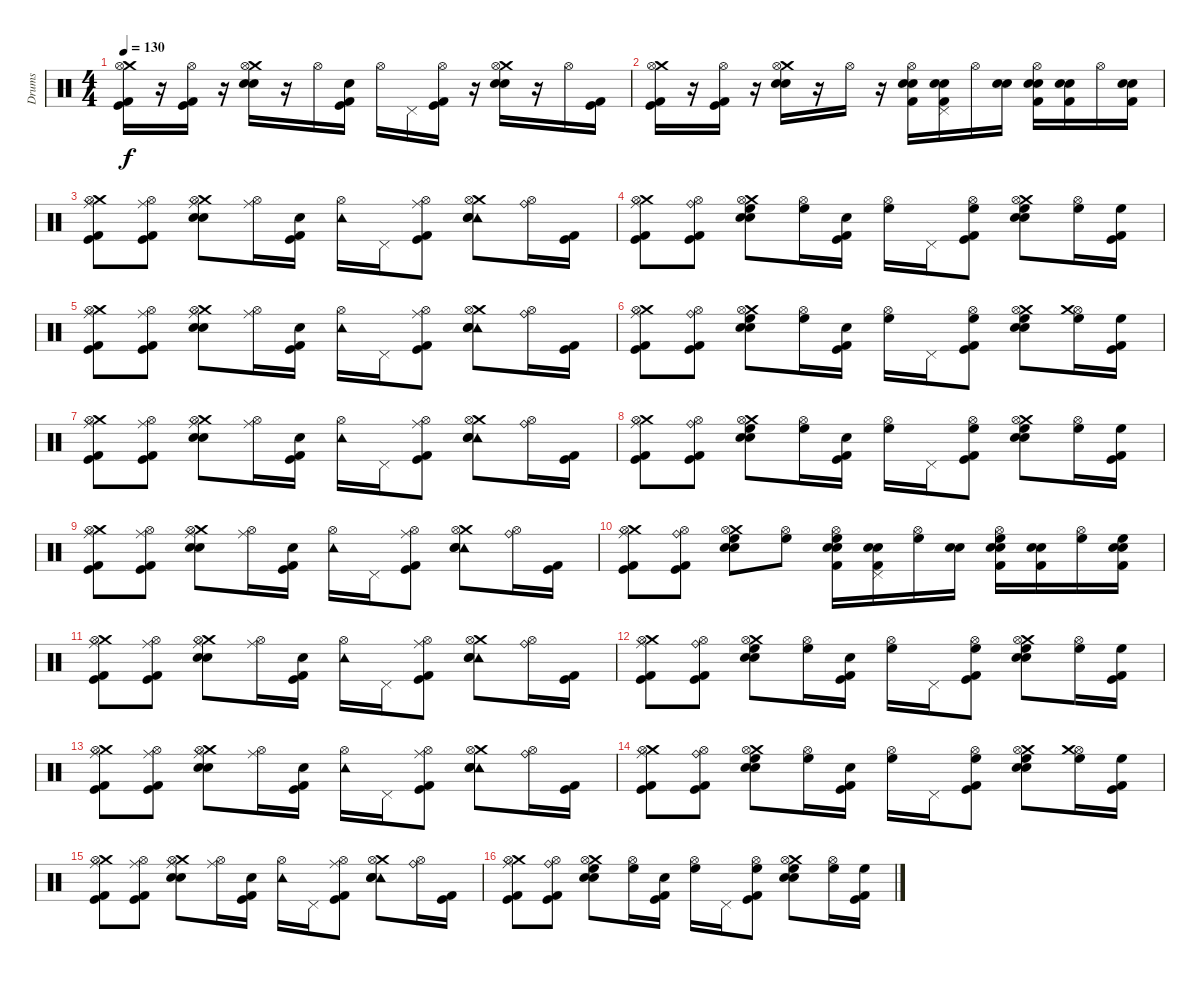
\track ("Drums" "Drums") {instrument percussion}
\staff {score}
\articulation defaults
\ts (4 4)
\tempo 130
\clef neutral
\ks c
("Kick (hit) 2" "Kick (hit)" "Crash medium (hit)" "Hi-Hat (open)").16{dy f} r.16 ("Kick (hit) 2" "Kick (hit)" "Hi-Hat (open)").16 r.16 ("Snare (hit) 2" "Electric Snare (hit)" "Crash medium (hit)" "Hi-Hat (open)").16 r.16 "Hi-Hat (open)".16 ("Kick (hit) 2" "Kick (hit)" "Electric Snare (hit)").16 "Hi-Hat (open)".16 "Pedal Hi-Hat (hit)".16 ("Kick (hit) 2" "Kick (hit)" "Hi-Hat (open)").16 r.16 ("Snare (hit) 2" "Electric Snare (hit)" "Crash medium (hit)" "Hi-Hat (open)").16 r.16 "Hi-Hat (open)".16 ("Kick (hit) 2" "Kick (hit)").16 |
("Kick (hit) 2" "Kick (hit)" "Crash medium (hit)" "Hi-Hat (open)").16 r.16 ("Kick (hit) 2" "Kick (hit)" "Hi-Hat (open)").16 r.16 ("Snare (hit) 2" "Electric Snare (hit)" "Crash medium (hit)" "Hi-Hat (open)").16 r.16 "Hi-Hat (open)".16 r.16 ("Hi-Hat (open)" "Electric Snare (hit)" "Snare (hit) 2" "Kick (hit) 2").16 ("Electric Snare (hit)" "Snare (hit) 2" "Kick (hit) 2" "Pedal Hi-Hat (hit)").16 "Hi-Hat (open)".16 ("Electric Snare (hit)" "Electric Snare (hit)").16 ("Hi-Hat (open)" "Snare (hit) 2" "Electric Snare (hit)" "Kick (hit) 2").16 ("Electric Snare (hit)" "Snare (hit) 2" "Kick (hit) 2").16 "Hi-Hat (open)".16 ("Electric Snare (hit)" "Snare (hit) 2" "Kick (hit) 2").16 |
("Ride (middle)" "Kick (hit) 2" "Kick (hit)" "Crash medium (hit)" "Hi-Hat (open)").8 ("Ride (middle)" "Kick (hit) 2" "Kick (hit)" "Hi-Hat (open)").8 ("Ride (middle)" "Snare (hit) 2" "Electric Snare (hit)" "Crash medium (hit)" "Hi-Hat (open)").8 ("Ride (middle)" "Hi-Hat (open)").16 ("Kick (hit) 2" "Kick (hit)" "Electric Snare (hit)").16 ("Tambourine (hit)" "Hi-Hat (open)").16 "Pedal Hi-Hat (hit)".16 ("Ride (middle)" "Kick (hit) 2" "Kick (hit)" "Hi-Hat (open)").8 ("Tambourine (hit)" "Snare (hit) 2" "Electric Snare (hit)" "Crash medium (hit)" "Hi-Hat (open)").8 ("Ride (bell)" "Hi-Hat (open)").16 ("Kick (hit) 2" "Kick (hit)").16 |
("Ride (middle)" "Kick (hit) 2" "Kick (hit)" "Crash medium (hit)" "Hi-Hat (open)").8 ("Ride (bell)" "Kick (hit) 2" "Kick (hit)" "Hi-Hat (open)").8 ("High Floor Tom (hit)" "Snare (hit) 2" "Electric Snare (hit)" "Crash medium (hit)" "Hi-Hat (open)").8 ("High Floor Tom (hit)" "Hi-Hat (open)").16 ("Kick (hit) 2" "Kick (hit)" "Electric Snare (hit)").16 ("High Floor Tom (hit)" "Hi-Hat (open)").16 "Pedal Hi-Hat (hit)".16 ("High Floor Tom (hit)" "Kick (hit) 2" "Kick (hit)" "Hi-Hat (open)").8 ("High Floor Tom (hit)" "Snare (hit) 2" "Electric Snare (hit)" "Crash medium (hit)" "Hi-Hat (open)").8 ("High Floor Tom (hit)" "Hi-Hat (open)").16 ("High Floor Tom (hit)" "Kick (hit) 2" "Kick (hit)").16 |
("Ride (middle)" "Kick (hit) 2" "Kick (hit)" "Crash medium (hit)" "Hi-Hat (open)").8 ("Ride (middle)" "Kick (hit) 2" "Kick (hit)" "Hi-Hat (open)").8 ("Ride (middle)" "Snare (hit) 2" "Electric Snare (hit)" "Crash medium (hit)" "Hi-Hat (open)").8 ("Ride (middle)" "Hi-Hat (open)").16 ("Kick (hit) 2" "Kick (hit)" "Electric Snare (hit)").16 ("Tambourine (hit)" "Hi-Hat (open)").16 "Pedal Hi-Hat (hit)".16 ("Ride (middle)" "Kick (hit) 2" "Kick (hit)" "Hi-Hat (open)").8 ("Tambourine (hit)" "Snare (hit) 2" "Electric Snare (hit)" "Crash medium (hit)" "Hi-Hat (open)").8 ("Ride (bell)" "Hi-Hat (open)").16 ("Kick (hit) 2" "Kick (hit)").16 |
("Ride (middle)" "Kick (hit) 2" "Kick (hit)" "Crash medium (hit)" "Hi-Hat (open)").8 ("Ride (bell)" "Kick (hit) 2" "Kick (hit)" "Hi-Hat (open)").8 ("High Floor Tom (hit)" "Snare (hit) 2" "Electric Snare (hit)" "Crash medium (hit)" "Hi-Hat (open)").8 ("High Floor Tom (hit)" "Hi-Hat (open)").16 ("Kick (hit) 2" "Kick (hit)" "Electric Snare (hit)").16 ("High Floor Tom (hit)" "Hi-Hat (open)").16 "Pedal Hi-Hat (hit)".16 ("High Floor Tom (hit)" "Kick (hit) 2" "Kick (hit)" "Hi-Hat (open)").8 ("High Floor Tom (hit)" "Snare (hit) 2" "Electric Snare (hit)" "Crash medium (hit)" "Hi-Hat (open)").8 ("High Floor Tom (hit)" "Hi-Hat (open)" "Crash medium (hit)").16 ("High Floor Tom (hit)" "Kick (hit) 2" "Kick (hit)").16 |
("Ride (middle)" "Kick (hit) 2" "Kick (hit)" "Crash medium (hit)" "Hi-Hat (open)").8 ("Ride (middle)" "Kick (hit) 2" "Kick (hit)" "Hi-Hat (open)").8 ("Ride (middle)" "Snare (hit) 2" "Electric Snare (hit)" "Crash medium (hit)" "Hi-Hat (open)").8 ("Ride (middle)" "Hi-Hat (open)").16 ("Kick (hit) 2" "Kick (hit)" "Electric Snare (hit)").16 ("Tambourine (hit)" "Hi-Hat (open)").16 "Pedal Hi-Hat (hit)".16 ("Ride (middle)" "Kick (hit) 2" "Kick (hit)" "Hi-Hat (open)").8 ("Tambourine (hit)" "Snare (hit) 2" "Electric Snare (hit)" "Crash medium (hit)" "Hi-Hat (open)").8 ("Ride (bell)" "Hi-Hat (open)").16 ("Kick (hit) 2" "Kick (hit)").16 |
("Ride (middle)" "Kick (hit) 2" "Kick (hit)" "Crash medium (hit)" "Hi-Hat (open)").8 ("Ride (bell)" "Kick (hit) 2" "Kick (hit)" "Hi-Hat (open)").8 ("High Floor Tom (hit)" "Snare (hit) 2" "Electric Snare (hit)" "Crash medium (hit)" "Hi-Hat (open)").8 ("High Floor Tom (hit)" "Hi-Hat (open)").16 ("Kick (hit) 2" "Kick (hit)" "Electric Snare (hit)").16 ("High Floor Tom (hit)" "Hi-Hat (open)").16 "Pedal Hi-Hat (hit)".16 ("High Floor Tom (hit)" "Kick (hit) 2" "Kick (hit)" "Hi-Hat (open)").8 ("High Floor Tom (hit)" "Snare (hit) 2" "Electric Snare (hit)" "Crash medium (hit)" "Hi-Hat (open)").8 ("High Floor Tom (hit)" "Hi-Hat (open)").16 ("High Floor Tom (hit)" "Kick (hit) 2" "Kick (hit)").16 |
("Ride (middle)" "Kick (hit) 2" "Kick (hit)" "Crash medium (hit)" "Hi-Hat (open)").8 ("Ride (middle)" "Kick (hit) 2" "Kick (hit)" "Hi-Hat (open)").8 ("Ride (middle)" "Snare (hit) 2" "Electric Snare (hit)" "Crash medium (hit)" "Hi-Hat (open)").8 ("Ride (middle)" "Hi-Hat (open)").16 ("Kick (hit) 2" "Kick (hit)" "Electric Snare (hit)").16 ("Tambourine (hit)" "Hi-Hat (open)").16 "Pedal Hi-Hat (hit)".16 ("Ride (middle)" "Kick (hit) 2" "Kick (hit)" "Hi-Hat (open)").8 ("Tambourine (hit)" "Snare (hit) 2" "Electric Snare (hit)" "Crash medium (hit)" "Hi-Hat (open)").8 ("Ride (bell)" "Hi-Hat (open)").16 ("Kick (hit) 2" "Kick (hit)").16 |
("Ride (middle)" "Kick (hit) 2" "Kick (hit)" "Crash medium (hit)" "Hi-Hat (open)").8 ("Ride (bell)" "Kick (hit) 2" "Kick (hit)" "Hi-Hat (open)").8 ("High Floor Tom (hit)" "Snare (hit) 2" "Electric Snare (hit)" "Crash medium (hit)" "Hi-Hat (open)").8 ("High Floor Tom (hit)" "Hi-Hat (open)").8 ("High Floor Tom (hit)" "Hi-Hat (open)" "Electric Snare (hit)" "Snare (hit) 2" "Kick (hit) 2").16 ("Electric Snare (hit)" "Snare (hit) 2" "Kick (hit) 2" "Pedal Hi-Hat (hit)").16 ("High Floor Tom (hit)" "Hi-Hat (open)").16 ("Electric Snare (hit)" "Electric Snare (hit)").16 ("High Floor Tom (hit)" "Hi-Hat (open)" "Snare (hit) 2" "Electric Snare (hit)" "Kick (hit) 2").16 ("Electric Snare (hit)" "Snare (hit) 2" "Kick (hit) 2").16 ("High Floor Tom (hit)" "Hi-Hat (open)").16 ("High Floor Tom (hit)" "Electric Snare (hit)" "Snare (hit) 2" "Kick (hit) 2").16 |
("Ride (middle)" "Kick (hit) 2" "Kick (hit)" "Crash medium (hit)" "Hi-Hat (open)").8 ("Ride (middle)" "Kick (hit) 2" "Kick (hit)" "Hi-Hat (open)").8 ("Ride (middle)" "Snare (hit) 2" "Electric Snare (hit)" "Crash medium (hit)" "Hi-Hat (open)").8 ("Ride (middle)" "Hi-Hat (open)").16 ("Kick (hit) 2" "Kick (hit)" "Electric Snare (hit)").16 ("Tambourine (hit)" "Hi-Hat (open)").16 "Pedal Hi-Hat (hit)".16 ("Ride (middle)" "Kick (hit) 2" "Kick (hit)" "Hi-Hat (open)").8 ("Tambourine (hit)" "Snare (hit) 2" "Electric Snare (hit)" "Crash medium (hit)" "Hi-Hat (open)").8 ("Ride (bell)" "Hi-Hat (open)").16 ("Kick (hit) 2" "Kick (hit)").16 |
("Ride (middle)" "Kick (hit) 2" "Kick (hit)" "Crash medium (hit)" "Hi-Hat (open)").8 ("Ride (bell)" "Kick (hit) 2" "Kick (hit)" "Hi-Hat (open)").8 ("High Floor Tom (hit)" "Snare (hit) 2" "Electric Snare (hit)" "Crash medium (hit)" "Hi-Hat (open)").8 ("High Floor Tom (hit)" "Hi-Hat (open)").16 ("Kick (hit) 2" "Kick (hit)" "Electric Snare (hit)").16 ("High Floor Tom (hit)" "Hi-Hat (open)").16 "Pedal Hi-Hat (hit)".16 ("High Floor Tom (hit)" "Kick (hit) 2" "Kick (hit)" "Hi-Hat (open)").8 ("High Floor Tom (hit)" "Snare (hit) 2" "Electric Snare (hit)" "Crash medium (hit)" "Hi-Hat (open)").8 ("High Floor Tom (hit)" "Hi-Hat (open)").16 ("High Floor Tom (hit)" "Kick (hit) 2" "Kick (hit)").16 |
("Ride (middle)" "Kick (hit) 2" "Kick (hit)" "Crash medium (hit)" "Hi-Hat (open)").8 ("Ride (middle)" "Kick (hit) 2" "Kick (hit)" "Hi-Hat (open)").8 ("Ride (middle)" "Snare (hit) 2" "Electric Snare (hit)" "Crash medium (hit)" "Hi-Hat (open)").8 ("Ride (middle)" "Hi-Hat (open)").16 ("Kick (hit) 2" "Kick (hit)" "Electric Snare (hit)").16 ("Tambourine (hit)" "Hi-Hat (open)").16 "Pedal Hi-Hat (hit)".16 ("Ride (middle)" "Kick (hit) 2" "Kick (hit)" "Hi-Hat (open)").8 ("Tambourine (hit)" "Snare (hit) 2" "Electric Snare (hit)" "Crash medium (hit)" "Hi-Hat (open)").8 ("Ride (bell)" "Hi-Hat (open)").16 ("Kick (hit) 2" "Kick (hit)").16 |
("Ride (middle)" "Kick (hit) 2" "Kick (hit)" "Crash medium (hit)" "Hi-Hat (open)").8 ("Ride (bell)" "Kick (hit) 2" "Kick (hit)" "Hi-Hat (open)").8 ("High Floor Tom (hit)" "Snare (hit) 2" "Electric Snare (hit)" "Crash medium (hit)" "Hi-Hat (open)").8 ("High Floor Tom (hit)" "Hi-Hat (open)").16 ("Kick (hit) 2" "Kick (hit)" "Electric Snare (hit)").16 ("High Floor Tom (hit)" "Hi-Hat (open)").16 "Pedal Hi-Hat (hit)".16 ("High Floor Tom (hit)" "Kick (hit) 2" "Kick (hit)" "Hi-Hat (open)").8 ("High Floor Tom (hit)" "Snare (hit) 2" "Electric Snare (hit)" "Crash medium (hit)" "Hi-Hat (open)").8 ("High Floor Tom (hit)" "Hi-Hat (open)" "Crash medium (hit)").16 ("High Floor Tom (hit)" "Kick (hit) 2" "Kick (hit)").16 |
("Ride (middle)" "Kick (hit) 2" "Kick (hit)" "Crash medium (hit)" "Hi-Hat (open)").8 ("Ride (middle)" "Kick (hit) 2" "Kick (hit)" "Hi-Hat (open)").8 ("Ride (middle)" "Snare (hit) 2" "Electric Snare (hit)" "Crash medium (hit)" "Hi-Hat (open)").8 ("Ride (middle)" "Hi-Hat (open)").16 ("Kick (hit) 2" "Kick (hit)" "Electric Snare (hit)").16 ("Tambourine (hit)" "Hi-Hat (open)").16 "Pedal Hi-Hat (hit)".16 ("Ride (middle)" "Kick (hit) 2" "Kick (hit)" "Hi-Hat (open)").8 ("Tambourine (hit)" "Snare (hit) 2" "Electric Snare (hit)" "Crash medium (hit)" "Hi-Hat (open)").8 ("Ride (bell)" "Hi-Hat (open)").16 ("Kick (hit) 2" "Kick (hit)").16 |
("Ride (middle)" "Kick (hit) 2" "Kick (hit)" "Crash medium (hit)" "Hi-Hat (open)").8 ("Ride (bell)" "Kick (hit) 2" "Kick (hit)" "Hi-Hat (open)").8 ("High Floor Tom (hit)" "Snare (hit) 2" "Electric Snare (hit)" "Crash medium (hit)" "Hi-Hat (open)").8 ("High Floor Tom (hit)" "Hi-Hat (open)").16 ("Kick (hit) 2" "Kick (hit)" "Electric Snare (hit)").16 ("High Floor Tom (hit)" "Hi-Hat (open)").16 "Pedal Hi-Hat (hit)".16 ("High Floor Tom (hit)" "Kick (hit) 2" "Kick (hit)" "Hi-Hat (open)").8 ("High Floor Tom (hit)" "Snare (hit) 2" "Electric Snare (hit)" "Crash medium (hit)" "Hi-Hat (open)").8 ("High Floor Tom (hit)" "Hi-Hat (open)").16 ("High Floor Tom (hit)" "Kick (hit) 2" "Kick (hit)").16
